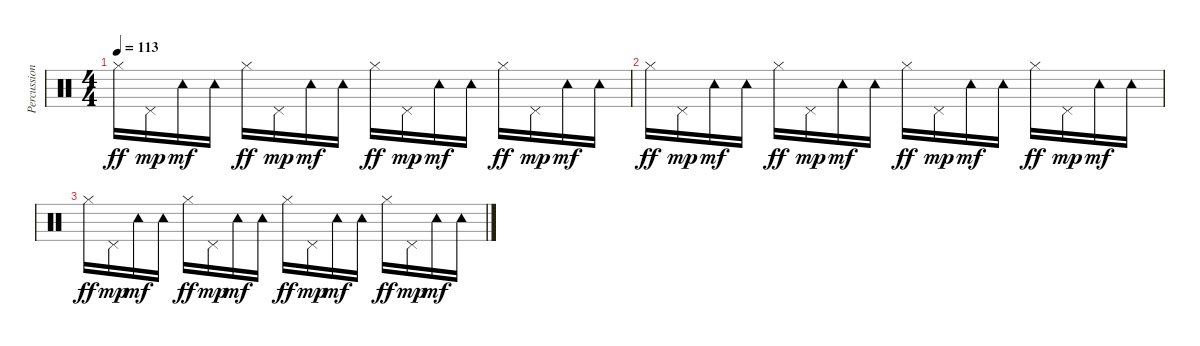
\track ("Percussion" "Percussion") {instrument percussion}
\staff {score}
\articulation defaults
\ts (4 4)
\tempo 113
\clef neutral
\ks c "Hi-Hat (closed)".16{dy ff} "Pedal Hi-Hat (hit)".16{dy mp} "Tambourine (hit)".16{dy mf} "Tambourine (hit)".16 "Hi-Hat (closed)".16{dy ff} "Pedal Hi-Hat (hit)".16{dy mp} "Tambourine (hit)".16{dy mf} "Tambourine (hit)".16 "Hi-Hat (closed)".16{dy ff} "Pedal Hi-Hat (hit)".16{dy mp} "Tambourine (hit)".16{dy mf} "Tambourine (hit)".16 "Hi-Hat (closed)".16{dy ff} "Pedal Hi-Hat (hit)".16{dy mp} "Tambourine (hit)".16{dy mf} "Tambourine (hit)".16
|
"Hi-Hat (closed)".16{dy ff} "Pedal Hi-Hat (hit)".16{dy mp} "Tambourine (hit)".16{dy mf} "Tambourine (hit)".16 "Hi-Hat (closed)".16{dy ff} "Pedal Hi-Hat (hit)".16{dy mp} "Tambourine (hit)".16{dy mf} "Tambourine (hit)".16 "Hi-Hat (closed)".16{dy ff} "Pedal Hi-Hat (hit)".16{dy mp} "Tambourine (hit)".16{dy mf} "Tambourine (hit)".16 "Hi-Hat (closed)".16{dy ff} "Pedal Hi-Hat (hit)".16{dy mp} "Tambourine (hit)".16{dy mf} "Tambourine (hit)".16 |
"Hi-Hat (closed)".16{dy ff} "Pedal Hi-Hat (hit)".16{dy mp} "Tambourine (hit)".16{dy mf} "Tambourine (hit)".16 "Hi-Hat (closed)".16{dy ff} "Pedal Hi-Hat (hit)".16{dy mp} "Tambourine (hit)".16{dy mf} "Tambourine (hit)".16 "Hi-Hat (closed)".16{dy ff} "Pedal Hi-Hat (hit)".16{dy mp} "Tambourine (hit)".16{dy mf} "Tambourine (hit)".16 "Hi-Hat (closed)".16{dy ff} "Pedal Hi-Hat (hit)".16{dy mp} "Tambourine (hit)".16{dy mf} "Tambourine (hit)".16
